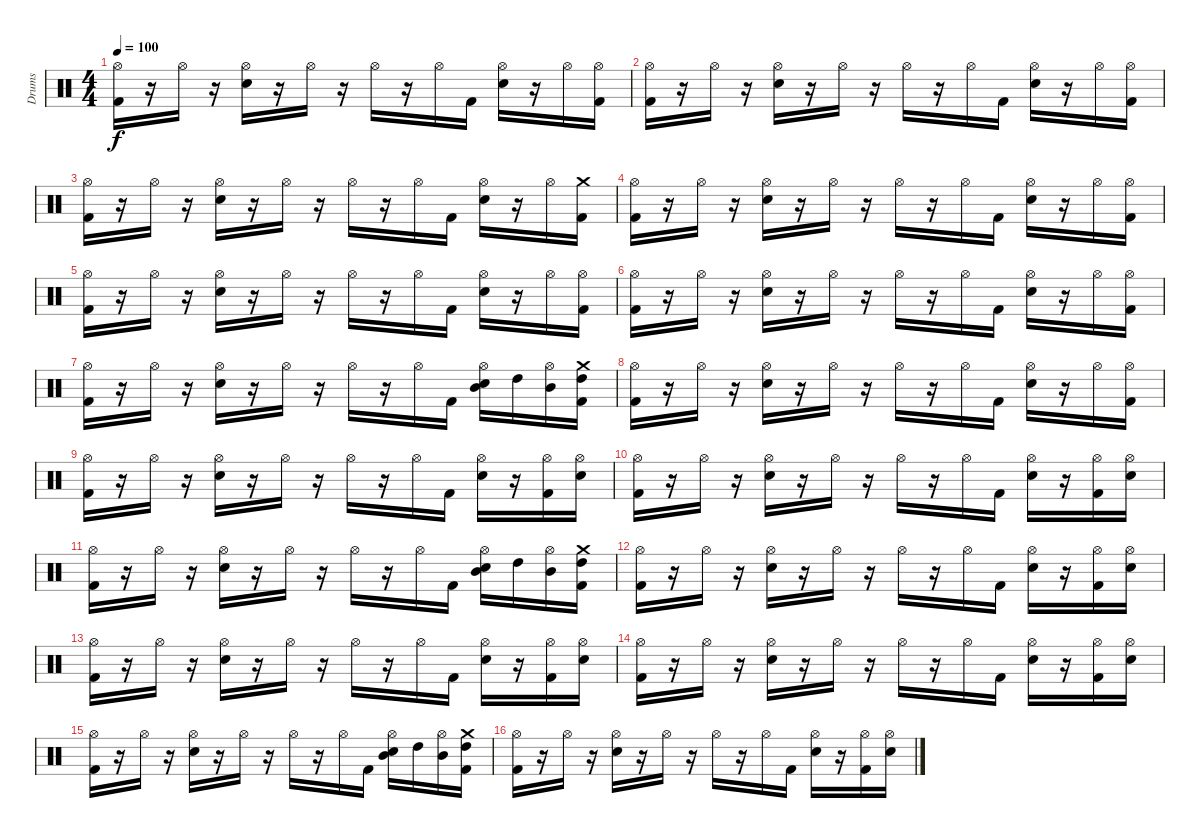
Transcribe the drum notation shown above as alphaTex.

\track ("Drums" "Drums") {instrument percussion}
\staff {score}
\articulation defaults
\ts (4 4)
\tempo 100
\clef neutral
\ks c
("Hi-Hat (open)" "Kick (hit) 2").16{dy f} r.16 "Hi-Hat (open)".16 r.16 ("Hi-Hat (open)" "Snare (hit) 2").16 r.16 "Hi-Hat (open)".16 r.16 "Hi-Hat (open)".16 r.16 "Hi-Hat (open)".16 "Kick (hit) 2".16 ("Hi-Hat (open)" "Snare (hit) 2").16 r.16 "Hi-Hat (open)".16 ("Hi-Hat (open)" "Kick (hit) 2").16 |
("Hi-Hat (open)" "Kick (hit) 2").16 r.16 "Hi-Hat (open)".16 r.16 ("Hi-Hat (open)" "Snare (hit) 2").16 r.16 "Hi-Hat (open)".16 r.16 "Hi-Hat (open)".16 r.16 "Hi-Hat (open)".16 "Kick (hit) 2".16 ("Hi-Hat (open)" "Snare (hit) 2").16 r.16 "Hi-Hat (open)".16 ("Hi-Hat (open)" "Kick (hit) 2").16 |
("Hi-Hat (open)" "Kick (hit) 2").16 r.16 "Hi-Hat (open)".16 r.16 ("Hi-Hat (open)" "Snare (hit) 2").16 r.16 "Hi-Hat (open)".16 r.16 "Hi-Hat (open)".16 r.16 "Hi-Hat (open)".16 "Kick (hit) 2".16 ("Hi-Hat (open)" "Snare (hit) 2").16 r.16 "Hi-Hat (open)".16 ("Crash medium (hit)" "Kick (hit) 2").16 |
("Hi-Hat (open)" "Kick (hit) 2").16 r.16 "Hi-Hat (open)".16 r.16 ("Hi-Hat (open)" "Snare (hit) 2").16 r.16 "Hi-Hat (open)".16 r.16 "Hi-Hat (open)".16 r.16 "Hi-Hat (open)".16 "Kick (hit) 2".16 ("Hi-Hat (open)" "Snare (hit) 2").16 r.16 "Hi-Hat (open)".16 ("Hi-Hat (open)" "Kick (hit) 2").16 |
("Hi-Hat (open)" "Kick (hit) 2").16 r.16 "Hi-Hat (open)".16 r.16 ("Hi-Hat (open)" "Snare (hit) 2").16 r.16 "Hi-Hat (open)".16 r.16 "Hi-Hat (open)".16 r.16 "Hi-Hat (open)".16 "Kick (hit) 2".16 ("Hi-Hat (open)" "Snare (hit) 2").16 r.16 "Hi-Hat (open)".16 ("Hi-Hat (open)" "Kick (hit) 2").16 |
("Hi-Hat (open)" "Kick (hit) 2").16 r.16 "Hi-Hat (open)".16 r.16 ("Hi-Hat (open)" "Snare (hit) 2").16 r.16 "Hi-Hat (open)".16 r.16 "Hi-Hat (open)".16 r.16 "Hi-Hat (open)".16 "Kick (hit) 2".16 ("Hi-Hat (open)" "Snare (hit) 2").16 r.16 "Hi-Hat (open)".16 ("Hi-Hat (open)" "Kick (hit) 2").16 |
("Hi-Hat (open)" "Kick (hit) 2").16 r.16 "Hi-Hat (open)".16 r.16 ("Hi-Hat (open)" "Snare (hit) 2").16 r.16 "Hi-Hat (open)".16 r.16 "Hi-Hat (open)".16 r.16 "Hi-Hat (open)".16 "Kick (hit) 2".16 ("Hi-Hat (open)" "Mid Tom (hit)" "Snare (hit) 2").16 "High Tom (hit)".16 ("Hi-Hat (open)" "Mid Tom (hit)").16 ("Crash medium (hit)" "Kick (hit) 2" "High Tom (hit)").16 |
("Hi-Hat (open)" "Kick (hit) 2").16 r.16 "Hi-Hat (open)".16 r.16 ("Hi-Hat (open)" "Snare (hit) 2").16 r.16 "Hi-Hat (open)".16 r.16 "Hi-Hat (open)".16 r.16 "Hi-Hat (open)".16 "Kick (hit) 2".16 ("Hi-Hat (open)" "Snare (hit) 2").16 r.16 "Hi-Hat (open)".16 ("Hi-Hat (open)" "Kick (hit) 2").16 |
("Hi-Hat (open)" "Kick (hit) 2").16 r.16 "Hi-Hat (open)".16 r.16 ("Hi-Hat (open)" "Snare (hit) 2").16 r.16 "Hi-Hat (open)".16 r.16 "Hi-Hat (open)".16 r.16 "Hi-Hat (open)".16 "Kick (hit) 2".16 ("Hi-Hat (open)" "Snare (hit) 2").16 r.16 ("Hi-Hat (open)" "Kick (hit) 2").16 ("Hi-Hat (open)" "Snare (hit) 2").16 |
("Hi-Hat (open)" "Kick (hit) 2").16 r.16 "Hi-Hat (open)".16 r.16 ("Hi-Hat (open)" "Snare (hit) 2").16 r.16 "Hi-Hat (open)".16 r.16 "Hi-Hat (open)".16 r.16 "Hi-Hat (open)".16 "Kick (hit) 2".16 ("Hi-Hat (open)" "Snare (hit) 2").16 r.16 ("Hi-Hat (open)" "Kick (hit) 2").16 ("Hi-Hat (open)" "Snare (hit) 2").16 |
("Hi-Hat (open)" "Kick (hit) 2").16 r.16 "Hi-Hat (open)".16 r.16 ("Hi-Hat (open)" "Snare (hit) 2").16 r.16 "Hi-Hat (open)".16 r.16 "Hi-Hat (open)".16 r.16 "Hi-Hat (open)".16 "Kick (hit) 2".16 ("Hi-Hat (open)" "Mid Tom (hit)" "Snare (hit) 2").16 "High Tom (hit)".16 ("Hi-Hat (open)" "Mid Tom (hit)").16 ("Crash medium (hit)" "Kick (hit) 2" "High Tom (hit)").16 |
("Hi-Hat (open)" "Kick (hit) 2").16 r.16 "Hi-Hat (open)".16 r.16 ("Hi-Hat (open)" "Snare (hit) 2").16 r.16 "Hi-Hat (open)".16 r.16 "Hi-Hat (open)".16 r.16 "Hi-Hat (open)".16 "Kick (hit) 2".16 ("Hi-Hat (open)" "Snare (hit) 2").16 r.16 ("Hi-Hat (open)" "Kick (hit) 2").16 ("Hi-Hat (open)" "Snare (hit) 2").16 |
("Hi-Hat (open)" "Kick (hit) 2").16 r.16 "Hi-Hat (open)".16 r.16 ("Hi-Hat (open)" "Snare (hit) 2").16 r.16 "Hi-Hat (open)".16 r.16 "Hi-Hat (open)".16 r.16 "Hi-Hat (open)".16 "Kick (hit) 2".16 ("Hi-Hat (open)" "Snare (hit) 2").16 r.16 ("Hi-Hat (open)" "Kick (hit) 2").16 ("Hi-Hat (open)" "Snare (hit) 2").16 |
("Hi-Hat (open)" "Kick (hit) 2").16 r.16 "Hi-Hat (open)".16 r.16 ("Hi-Hat (open)" "Snare (hit) 2").16 r.16 "Hi-Hat (open)".16 r.16 "Hi-Hat (open)".16 r.16 "Hi-Hat (open)".16 "Kick (hit) 2".16 ("Hi-Hat (open)" "Snare (hit) 2").16 r.16 ("Hi-Hat (open)" "Kick (hit) 2").16 ("Hi-Hat (open)" "Snare (hit) 2").16 |
("Hi-Hat (open)" "Kick (hit) 2").16 r.16 "Hi-Hat (open)".16 r.16 ("Hi-Hat (open)" "Snare (hit) 2").16 r.16 "Hi-Hat (open)".16 r.16 "Hi-Hat (open)".16 r.16 "Hi-Hat (open)".16 "Kick (hit) 2".16 ("Hi-Hat (open)" "Mid Tom (hit)" "Snare (hit) 2").16 "High Tom (hit)".16 ("Hi-Hat (open)" "Mid Tom (hit)").16 ("Crash medium (hit)" "Kick (hit) 2" "High Tom (hit)").16 |
("Hi-Hat (open)" "Kick (hit) 2").16 r.16 "Hi-Hat (open)".16 r.16 ("Hi-Hat (open)" "Snare (hit) 2").16 r.16 "Hi-Hat (open)".16 r.16 "Hi-Hat (open)".16 r.16 "Hi-Hat (open)".16 "Kick (hit) 2".16 ("Hi-Hat (open)" "Snare (hit) 2").16 r.16 ("Hi-Hat (open)" "Kick (hit) 2").16 ("Hi-Hat (open)" "Snare (hit) 2").16
